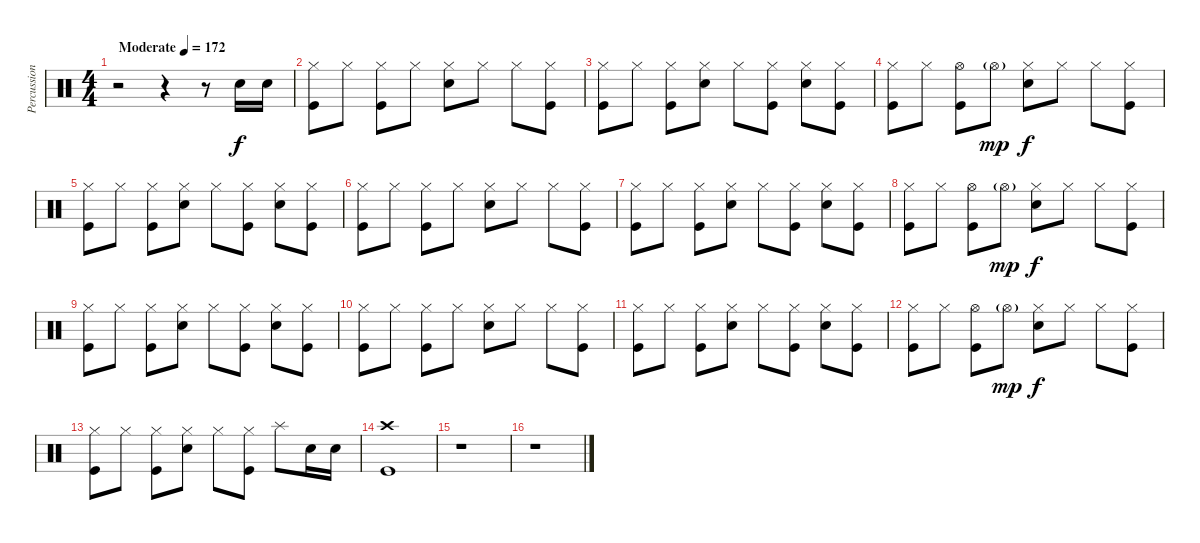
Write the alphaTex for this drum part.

\track ("Percussion" "Percussion") {instrument percussion}
\staff {score}
\articulation defaults
\ts (4 4)
\tempo (172 "Moderate")
\clef neutral
\ks c
r.2{dy f} r.4 r.8 "Electric Snare (hit)".16 "Electric Snare (hit)".16 |
("Hi-Hat (closed)" "Kick (hit)").8 "Hi-Hat (closed)".8 ("Hi-Hat (closed)" "Kick (hit)").8 "Hi-Hat (closed)".8 ("Hi-Hat (closed)" "Electric Snare (hit)").8 "Hi-Hat (closed)".8 "Hi-Hat (closed)".8 ("Hi-Hat (closed)" "Kick (hit)").8 |
("Hi-Hat (closed)" "Kick (hit)").8 "Hi-Hat (closed)".8 ("Hi-Hat (closed)" "Kick (hit)").8 ("Hi-Hat (closed)" "Electric Snare (hit)").8 "Hi-Hat (closed)".8 ("Hi-Hat (closed)" "Kick (hit)").8 ("Hi-Hat (closed)" "Electric Snare (hit)").8 ("Hi-Hat (closed)" "Kick (hit)").8 |
("Hi-Hat (closed)" "Kick (hit)").8 "Hi-Hat (closed)".8 ("Hi-Hat (open)" "Kick (hit)").8 "Hi-Hat (open)"{g}.8{dy mp} ("Hi-Hat (closed)" "Electric Snare (hit)").8{dy f} "Hi-Hat (closed)".8 "Hi-Hat (closed)".8 ("Hi-Hat (closed)" "Kick (hit)").8 |
("Hi-Hat (closed)" "Kick (hit)").8 "Hi-Hat (closed)".8 ("Hi-Hat (closed)" "Kick (hit)").8 ("Hi-Hat (closed)" "Electric Snare (hit)").8 "Hi-Hat (closed)".8 ("Hi-Hat (closed)" "Kick (hit)").8 ("Hi-Hat (closed)" "Electric Snare (hit)").8 ("Hi-Hat (closed)" "Kick (hit)").8 |
("Hi-Hat (closed)" "Kick (hit)").8 "Hi-Hat (closed)".8 ("Hi-Hat (closed)" "Kick (hit)").8 "Hi-Hat (closed)".8 ("Hi-Hat (closed)" "Electric Snare (hit)").8 "Hi-Hat (closed)".8 "Hi-Hat (closed)".8 ("Hi-Hat (closed)" "Kick (hit)").8 |
("Hi-Hat (closed)" "Kick (hit)").8 "Hi-Hat (closed)".8 ("Hi-Hat (closed)" "Kick (hit)").8 ("Hi-Hat (closed)" "Electric Snare (hit)").8 "Hi-Hat (closed)".8 ("Hi-Hat (closed)" "Kick (hit)").8 ("Hi-Hat (closed)" "Electric Snare (hit)").8 ("Hi-Hat (closed)" "Kick (hit)").8 |
("Hi-Hat (closed)" "Kick (hit)").8 "Hi-Hat (closed)".8 ("Hi-Hat (open)" "Kick (hit)").8 "Hi-Hat (open)"{g}.8{dy mp} ("Hi-Hat (closed)" "Electric Snare (hit)").8{dy f} "Hi-Hat (closed)".8 "Hi-Hat (closed)".8 ("Hi-Hat (closed)" "Kick (hit)").8 |
("Hi-Hat (closed)" "Kick (hit)").8 "Hi-Hat (closed)".8 ("Hi-Hat (closed)" "Kick (hit)").8 ("Hi-Hat (closed)" "Electric Snare (hit)").8 "Hi-Hat (closed)".8 ("Hi-Hat (closed)" "Kick (hit)").8 ("Hi-Hat (closed)" "Electric Snare (hit)").8 ("Hi-Hat (closed)" "Kick (hit)").8 |
("Hi-Hat (closed)" "Kick (hit)").8 "Hi-Hat (closed)".8 ("Hi-Hat (closed)" "Kick (hit)").8 "Hi-Hat (closed)".8 ("Hi-Hat (closed)" "Electric Snare (hit)").8 "Hi-Hat (closed)".8 "Hi-Hat (closed)".8 ("Hi-Hat (closed)" "Kick (hit)").8 |
("Hi-Hat (closed)" "Kick (hit)").8 "Hi-Hat (closed)".8 ("Hi-Hat (closed)" "Kick (hit)").8 ("Hi-Hat (closed)" "Electric Snare (hit)").8 "Hi-Hat (closed)".8 ("Hi-Hat (closed)" "Kick (hit)").8 ("Hi-Hat (closed)" "Electric Snare (hit)").8 ("Hi-Hat (closed)" "Kick (hit)").8 |
("Hi-Hat (closed)" "Kick (hit)").8 "Hi-Hat (closed)".8 ("Hi-Hat (open)" "Kick (hit)").8 "Hi-Hat (open)"{g}.8{dy mp} ("Hi-Hat (closed)" "Electric Snare (hit)").8{dy f} "Hi-Hat (closed)".8 "Hi-Hat (closed)".8 ("Hi-Hat (closed)" "Kick (hit)").8 |
("Hi-Hat (closed)" "Kick (hit)").8 "Hi-Hat (closed)".8 ("Hi-Hat (closed)" "Kick (hit)").8 ("Hi-Hat (closed)" "Electric Snare (hit)").8 "Hi-Hat (closed)".8 ("Hi-Hat (closed)" "Kick (hit)").8 "Splash (hit)".8 "Electric Snare (hit)".16 "Electric Snare (hit)".16 |
("Crash high (hit)" "Kick (hit)").1 |
r.1 |
r.1
